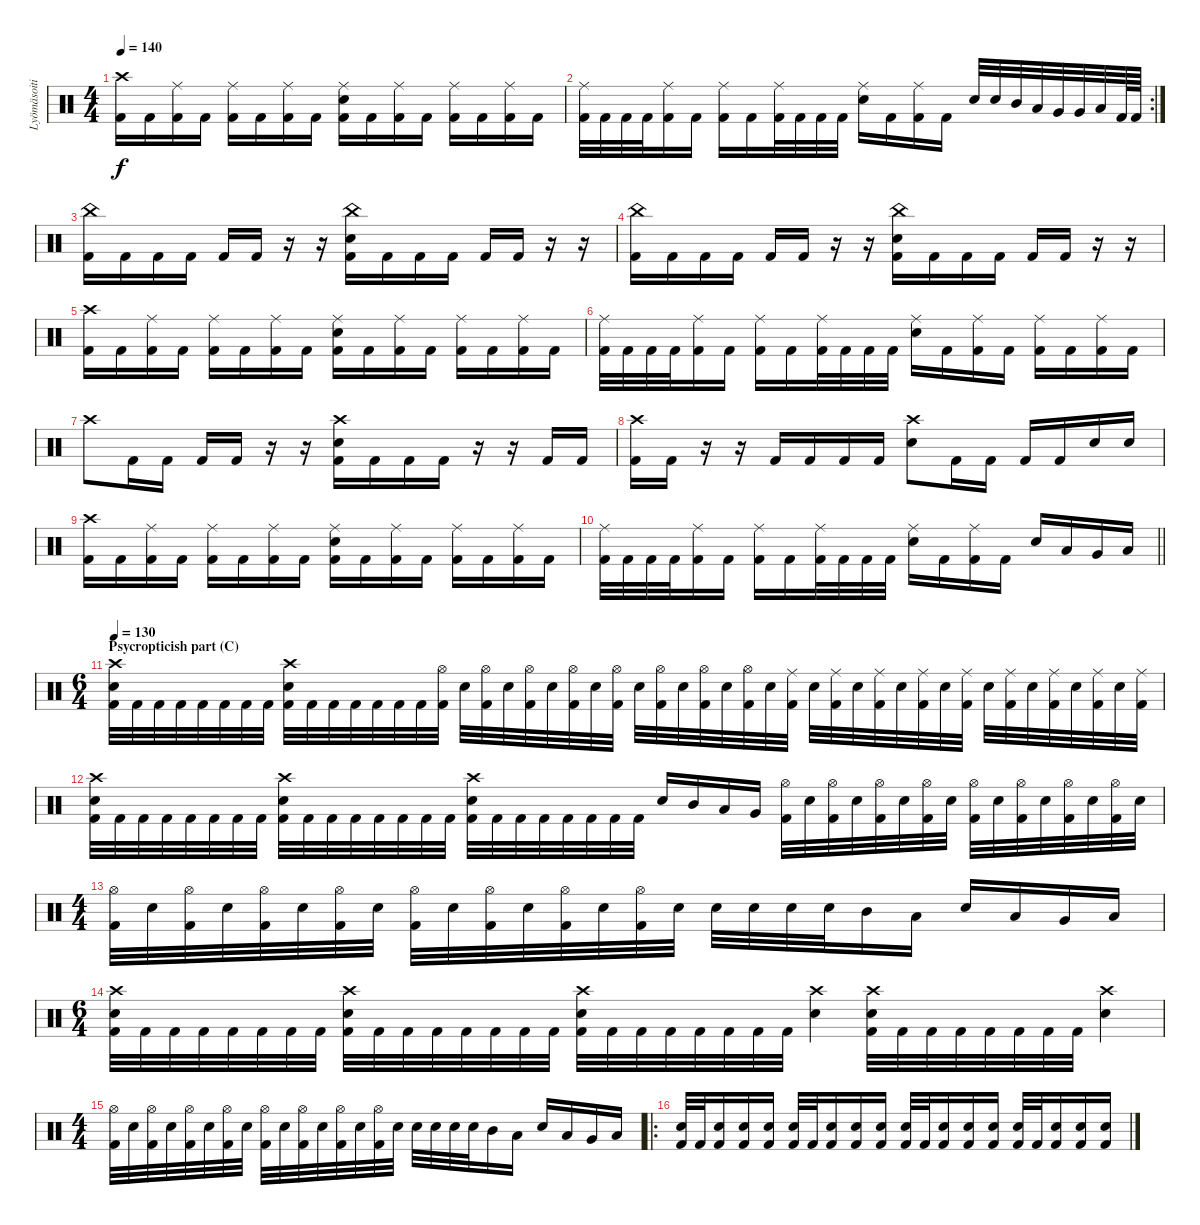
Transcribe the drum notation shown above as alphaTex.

\track ("Lyömäsoitin" "Lyömäsoiti") {instrument percussion}
\staff {score}
\articulation defaults
\ts (4 4)
\tempo 140
\clef neutral
\ks c
("Crash high (hit)" "Kick (hit) 2").16{dy f} "Kick (hit) 2".16 ("Kick (hit) 2" "Ride (middle)").16 "Kick (hit) 2".16 ("Kick (hit) 2" "Ride (middle)").16 "Kick (hit) 2".16 ("Kick (hit) 2" "Ride (middle)").16 "Kick (hit) 2".16 ("Kick (hit) 2" "Ride (middle)" "Electric Snare (hit)").16 "Kick (hit) 2".16 ("Kick (hit) 2" "Ride (middle)").16 "Kick (hit) 2".16 ("Kick (hit) 2" "Ride (middle)").16 "Kick (hit) 2".16 ("Kick (hit) 2" "Ride (middle)").16 "Kick (hit) 2".16 |
\rc 2
("Kick (hit) 2" "Ride (middle)").32 "Kick (hit) 2".32 "Kick (hit) 2".32 "Kick (hit) 2".32 ("Kick (hit) 2" "Ride (middle)").16 "Kick (hit) 2".16 ("Kick (hit) 2" "Ride (middle)").16 "Kick (hit) 2".16 ("Kick (hit) 2" "Ride (middle)").32 "Kick (hit) 2".32 "Kick (hit) 2".32 "Kick (hit) 2".32 ("Snare (hit) 2" "Ride (middle)").16 "Kick (hit) 2".16 ("Kick (hit) 2" "Ride (middle)").16 "Kick (hit) 2".16 "Snare (hit) 2".32 "Snare (hit) 2".32 "Mid Tom (hit)".32 "Low Tom (hit)".32 "Very Low Tom (hit)".32 "Very Low Tom (hit)".32 "Low Floor Tom (hit)".32 "Kick (hit) 2".64 "Kick (hit) 2".64 |
("Kick (hit) 2" "China (hit)").16 "Kick (hit) 2".16 "Kick (hit) 2".16 "Kick (hit) 2".16 "Kick (hit) 2".16 "Kick (hit) 2".16 r.16 r.16 ("Snare (hit) 2" "Kick (hit) 2" "China (hit)").16 "Kick (hit) 2".16 "Kick (hit) 2".16 "Kick (hit) 2".16 "Kick (hit) 2".16 "Kick (hit) 2".16 r.16 r.16 |
("Kick (hit) 2" "China (hit)").16 "Kick (hit) 2".16 "Kick (hit) 2".16 "Kick (hit) 2".16 "Kick (hit) 2".16 "Kick (hit) 2".16 r.16 r.16 ("Snare (hit) 2" "Kick (hit) 2" "China (hit)").16 "Kick (hit) 2".16 "Kick (hit) 2".16 "Kick (hit) 2".16 "Kick (hit) 2".16 "Kick (hit) 2".16 r.16 r.16 |
("Crash high (hit)" "Kick (hit) 2").16 "Kick (hit) 2".16 ("Kick (hit) 2" "Ride (middle)").16 "Kick (hit) 2".16 ("Kick (hit) 2" "Ride (middle)").16 "Kick (hit) 2".16 ("Kick (hit) 2" "Ride (middle)").16 "Kick (hit) 2".16 ("Kick (hit) 2" "Ride (middle)" "Electric Snare (hit)").16 "Kick (hit) 2".16 ("Kick (hit) 2" "Ride (middle)").16 "Kick (hit) 2".16 ("Kick (hit) 2" "Ride (middle)").16 "Kick (hit) 2".16 ("Kick (hit) 2" "Ride (middle)").16 "Kick (hit) 2".16 |
("Kick (hit) 2" "Ride (middle)").32 "Kick (hit) 2".32 "Kick (hit) 2".32 "Kick (hit) 2".32 ("Kick (hit) 2" "Ride (middle)").16 "Kick (hit) 2".16 ("Kick (hit) 2" "Ride (middle)").16 "Kick (hit) 2".16 ("Kick (hit) 2" "Ride (middle)").32 "Kick (hit) 2".32 "Kick (hit) 2".32 "Kick (hit) 2".32 ("Snare (hit) 2" "Ride (middle)").16 "Kick (hit) 2".16 ("Kick (hit) 2" "Ride (middle)").16 "Kick (hit) 2".16 ("Kick (hit) 2" "Ride (middle)").16 "Kick (hit) 2".16 ("Kick (hit) 2" "Ride (middle)").16 "Kick (hit) 2".16 |
"Crash high (hit)".8 "Kick (hit) 2".16 "Kick (hit) 2".16 "Kick (hit) 2".16 "Kick (hit) 2".16 r.16 r.16 ("Snare (hit) 2" "Kick (hit) 2" "Crash high (hit)").16 "Kick (hit) 2".16 "Kick (hit) 2".16 "Kick (hit) 2".16 r.16 r.16 "Kick (hit) 2".16 "Kick (hit) 2".16 |
("Kick (hit) 2" "Crash high (hit)").16 "Kick (hit) 2".16 r.16 r.16 "Kick (hit) 2".16 "Kick (hit) 2".16 "Kick (hit) 2".16 "Kick (hit) 2".16 ("Snare (hit) 2" "Crash high (hit)").8 "Kick (hit) 2".16 "Kick (hit) 2".16 "Kick (hit) 2".16 "Kick (hit) 2".16 "Snare (hit) 2".16 "Snare (hit) 2".16 |
("Crash high (hit)" "Kick (hit) 2").16 "Kick (hit) 2".16 ("Kick (hit) 2" "Ride (middle)").16 "Kick (hit) 2".16 ("Kick (hit) 2" "Ride (middle)").16 "Kick (hit) 2".16 ("Kick (hit) 2" "Ride (middle)").16 "Kick (hit) 2".16 ("Kick (hit) 2" "Ride (middle)" "Electric Snare (hit)").16 "Kick (hit) 2".16 ("Kick (hit) 2" "Ride (middle)").16 "Kick (hit) 2".16 ("Kick (hit) 2" "Ride (middle)").16 "Kick (hit) 2".16 ("Kick (hit) 2" "Ride (middle)").16 "Kick (hit) 2".16 |
\barLineRight lightlight
("Kick (hit) 2" "Ride (middle)").32 "Kick (hit) 2".32 "Kick (hit) 2".32 "Kick (hit) 2".32 ("Kick (hit) 2" "Ride (middle)").16 "Kick (hit) 2".16 ("Kick (hit) 2" "Ride (middle)").16 "Kick (hit) 2".16 ("Kick (hit) 2" "Ride (middle)").32 "Kick (hit) 2".32 "Kick (hit) 2".32 "Kick (hit) 2".32 ("Snare (hit) 2" "Ride (middle)").16 "Kick (hit) 2".16 ("Kick (hit) 2" "Ride (middle)").16 "Kick (hit) 2".16 "Snare (hit) 2".16 "Low Tom (hit)".16 "Very Low Tom (hit)".16 "Low Floor Tom (hit)".16 |
\ts (6 4)
\section ("" "Psycropticish part (C)")
\tempo 130
("Kick (hit) 2" "Crash high (hit)" "Electric Snare (hit)").32 "Kick (hit) 2".32 "Kick (hit) 2".32 "Kick (hit) 2".32 "Kick (hit) 2".32 "Kick (hit) 2".32 "Kick (hit) 2".32 "Kick (hit) 2".32 ("Kick (hit) 2" "Electric Snare (hit)" "Crash high (hit)").32 "Kick (hit) 2".32 "Kick (hit) 2".32 "Kick (hit) 2".32 "Kick (hit) 2".32 "Kick (hit) 2".32 "Kick (hit) 2".32 ("Hi-Hat (open)" "Kick (hit) 2").32 "Electric Snare (hit)".32 ("Hi-Hat (open)" "Kick (hit) 2").32 "Electric Snare (hit)".32 ("Hi-Hat (open)" "Kick (hit) 2").32 "Electric Snare (hit)".32 ("Hi-Hat (open)" "Kick (hit) 2").32 "Electric Snare (hit)".32 ("Hi-Hat (open)" "Kick (hit) 2").32 "Electric Snare (hit)".32 ("Hi-Hat (open)" "Kick (hit) 2").32 "Electric Snare (hit)".32 ("Hi-Hat (open)" "Kick (hit) 2").32 "Electric Snare (hit)".32 ("Hi-Hat (open)" "Kick (hit) 2").32 "Electric Snare (hit)".32 ("Ride (middle)" "Kick (hit) 2").32 "Electric Snare (hit)".32 ("Ride (middle)" "Kick (hit) 2").32 "Electric Snare (hit)".32 ("Ride (middle)" "Kick (hit) 2").32 "Electric Snare (hit)".32 ("Ride (middle)" "Kick (hit) 2").32 "Electric Snare (hit)".32 ("Ride (middle)" "Kick (hit) 2").32 "Electric Snare (hit)".32 ("Ride (middle)" "Kick (hit) 2").32 "Electric Snare (hit)".32 ("Ride (middle)" "Kick (hit) 2").32 "Electric Snare (hit)".32 ("Ride (middle)" "Kick (hit) 2").32 "Electric Snare (hit)".32 ("Ride (middle)" "Kick (hit) 2").32 |
("Kick (hit) 2" "Crash high (hit)" "Electric Snare (hit)").32 "Kick (hit) 2".32 "Kick (hit) 2".32 "Kick (hit) 2".32 "Kick (hit) 2".32 "Kick (hit) 2".32 "Kick (hit) 2".32 "Kick (hit) 2".32 ("Kick (hit) 2" "Electric Snare (hit)" "Crash high (hit)").32 "Kick (hit) 2".32 "Kick (hit) 2".32 "Kick (hit) 2".32 "Kick (hit) 2".32 "Kick (hit) 2".32 "Kick (hit) 2".32 "Kick (hit) 2".32 ("Kick (hit) 2" "Electric Snare (hit)" "Crash high (hit)").32 "Kick (hit) 2".32 "Kick (hit) 2".32 "Kick (hit) 2".32 "Kick (hit) 2".32 "Kick (hit) 2".32 "Kick (hit) 2".32 "Kick (hit) 2".32 "Electric Snare (hit)".16 "Mid Tom (hit)".16 "Low Tom (hit)".16 "Very Low Tom (hit)".16 ("Hi-Hat (open)" "Kick (hit) 2").32 "Electric Snare (hit)".32 ("Hi-Hat (open)" "Kick (hit) 2").32 "Electric Snare (hit)".32 ("Hi-Hat (open)" "Kick (hit) 2").32 "Electric Snare (hit)".32 ("Hi-Hat (open)" "Kick (hit) 2").32 "Electric Snare (hit)".32 ("Hi-Hat (open)" "Kick (hit) 2").32 "Electric Snare (hit)".32 ("Hi-Hat (open)" "Kick (hit) 2").32 "Electric Snare (hit)".32 ("Hi-Hat (open)" "Kick (hit) 2").32 "Electric Snare (hit)".32 ("Hi-Hat (open)" "Kick (hit) 2").32 "Electric Snare (hit)".32 |
\ts (4 4)
("Hi-Hat (open)" "Kick (hit) 2").32 "Electric Snare (hit)".32 ("Hi-Hat (open)" "Kick (hit) 2").32 "Electric Snare (hit)".32 ("Hi-Hat (open)" "Kick (hit) 2").32 "Electric Snare (hit)".32 ("Hi-Hat (open)" "Kick (hit) 2").32 "Electric Snare (hit)".32 ("Hi-Hat (open)" "Kick (hit) 2").32 "Electric Snare (hit)".32 ("Hi-Hat (open)" "Kick (hit) 2").32 "Electric Snare (hit)".32 ("Hi-Hat (open)" "Kick (hit) 2").32 "Electric Snare (hit)".32 ("Hi-Hat (open)" "Kick (hit) 2").32 "Electric Snare (hit)".32 "Electric Snare (hit)".32 "Electric Snare (hit)".32 "Electric Snare (hit)".32 "Electric Snare (hit)".32 "Mid Tom (hit)".16 "Low Tom (hit)".16 "Electric Snare (hit)".16 "Low Tom (hit)".16 "Very Low Tom (hit)".16 "Low Floor Tom (hit)".16 |
\ts (6 4)
("Kick (hit) 2" "Crash high (hit)" "Electric Snare (hit)").32 "Kick (hit) 2".32 "Kick (hit) 2".32 "Kick (hit) 2".32 "Kick (hit) 2".32 "Kick (hit) 2".32 "Kick (hit) 2".32 "Kick (hit) 2".32 ("Kick (hit) 2" "Electric Snare (hit)" "Crash high (hit)").32 "Kick (hit) 2".32 "Kick (hit) 2".32 "Kick (hit) 2".32 "Kick (hit) 2".32 "Kick (hit) 2".32 "Kick (hit) 2".32 "Kick (hit) 2".32 ("Kick (hit) 2" "Electric Snare (hit)" "Crash high (hit)").32 "Kick (hit) 2".32 "Kick (hit) 2".32 "Kick (hit) 2".32 "Kick (hit) 2".32 "Kick (hit) 2".32 "Kick (hit) 2".32 "Kick (hit) 2".32 ("Electric Snare (hit)" "Crash high (hit)").4 ("Kick (hit) 2" "Electric Snare (hit)" "Crash high (hit)").32 "Kick (hit) 2".32 "Kick (hit) 2".32 "Kick (hit) 2".32 "Kick (hit) 2".32 "Kick (hit) 2".32 "Kick (hit) 2".32 "Kick (hit) 2".32 ("Electric Snare (hit)" "Crash high (hit)").4 |
\ts (4 4)
("Hi-Hat (open)" "Kick (hit) 2").32 "Electric Snare (hit)".32 ("Hi-Hat (open)" "Kick (hit) 2").32 "Electric Snare (hit)".32 ("Hi-Hat (open)" "Kick (hit) 2").32 "Electric Snare (hit)".32 ("Hi-Hat (open)" "Kick (hit) 2").32 "Electric Snare (hit)".32 ("Hi-Hat (open)" "Kick (hit) 2").32 "Electric Snare (hit)".32 ("Hi-Hat (open)" "Kick (hit) 2").32 "Electric Snare (hit)".32 ("Hi-Hat (open)" "Kick (hit) 2").32 "Electric Snare (hit)".32 ("Hi-Hat (open)" "Kick (hit) 2").32 "Electric Snare (hit)".32 "Electric Snare (hit)".32 "Electric Snare (hit)".32 "Electric Snare (hit)".32 "Electric Snare (hit)".32 "Mid Tom (hit)".16 "Low Tom (hit)".16 "Electric Snare (hit)".16 "Low Tom (hit)".16 "Very Low Tom (hit)".16 "Low Floor Tom (hit)".16 |
\ro
("Kick (hit) 2" "Electric Snare (hit)").32 "Kick (hit) 2".32 ("Kick (hit) 2" "Electric Snare (hit)").16 ("Kick (hit) 2" "Electric Snare (hit)").16 ("Kick (hit) 2" "Electric Snare (hit)").16 ("Kick (hit) 2" "Electric Snare (hit)").32 "Kick (hit) 2".32 ("Kick (hit) 2" "Electric Snare (hit)").16 ("Kick (hit) 2" "Electric Snare (hit)").16 ("Kick (hit) 2" "Electric Snare (hit)").16 ("Kick (hit) 2" "Electric Snare (hit)").32 "Kick (hit) 2".32 ("Kick (hit) 2" "Electric Snare (hit)").16 ("Kick (hit) 2" "Electric Snare (hit)").16 ("Kick (hit) 2" "Electric Snare (hit)").16 ("Kick (hit) 2" "Electric Snare (hit)").32 "Kick (hit) 2".32 ("Kick (hit) 2" "Electric Snare (hit)").16 ("Kick (hit) 2" "Electric Snare (hit)").16 ("Kick (hit) 2" "Electric Snare (hit)").16
